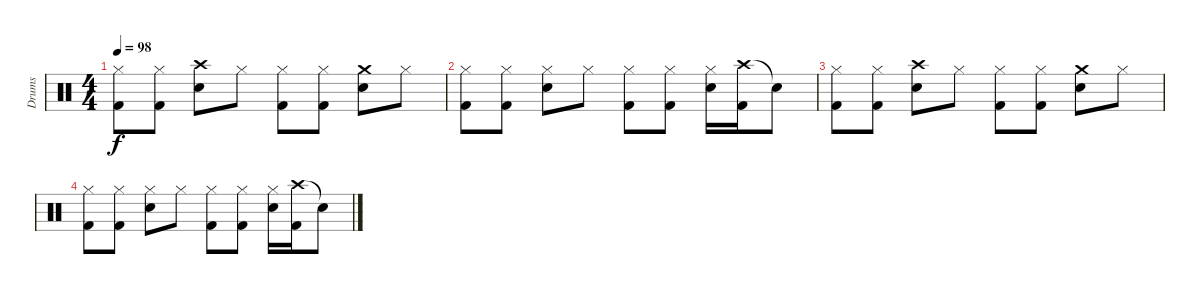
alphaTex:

\track ("Drums" "Drums") {instrument percussion}
\staff {score}
\articulation defaults
\ts (4 4)
\tempo 98
\clef neutral
\ks c
("Hi-Hat (closed)" "Kick (hit) 2").8{dy f} ("Hi-Hat (closed)" "Kick (hit) 2").8 ("Crash high (hit)" "Snare (hit) 2").8 "Hi-Hat (closed)".8 ("Hi-Hat (closed)" "Kick (hit) 2").8 ("Hi-Hat (closed)" "Kick (hit) 2").8 ("Crash medium (hit)" "Snare (hit) 2").8 "Hi-Hat (closed)".8 |
("Hi-Hat (closed)" "Kick (hit) 2").8 ("Hi-Hat (closed)" "Kick (hit) 2").8 ("Hi-Hat (closed)" "Snare (hit) 2").8 "Hi-Hat (closed)".8 ("Hi-Hat (closed)" "Kick (hit) 2").8 ("Hi-Hat (closed)" "Kick (hit) 2").8 ("Hi-Hat (closed)" "Snare (hit) 2").16 ("Crash high (hit)" "Kick (hit) 2").16 "Snare (hit)"{t}.8 |
("Hi-Hat (closed)" "Kick (hit) 2").8 ("Hi-Hat (closed)" "Kick (hit) 2").8 ("Crash high (hit)" "Snare (hit) 2").8 "Hi-Hat (closed)".8 ("Hi-Hat (closed)" "Kick (hit) 2").8 ("Hi-Hat (closed)" "Kick (hit) 2").8 ("Crash medium (hit)" "Snare (hit) 2").8 "Hi-Hat (closed)".8 |
("Hi-Hat (closed)" "Kick (hit) 2").8 ("Hi-Hat (closed)" "Kick (hit) 2").8 ("Hi-Hat (closed)" "Snare (hit) 2").8 "Hi-Hat (closed)".8 ("Hi-Hat (closed)" "Kick (hit) 2").8 ("Hi-Hat (closed)" "Kick (hit) 2").8 ("Hi-Hat (closed)" "Snare (hit) 2").16 ("Crash high (hit)" "Kick (hit) 2").16 "Snare (hit)"{t}.8
